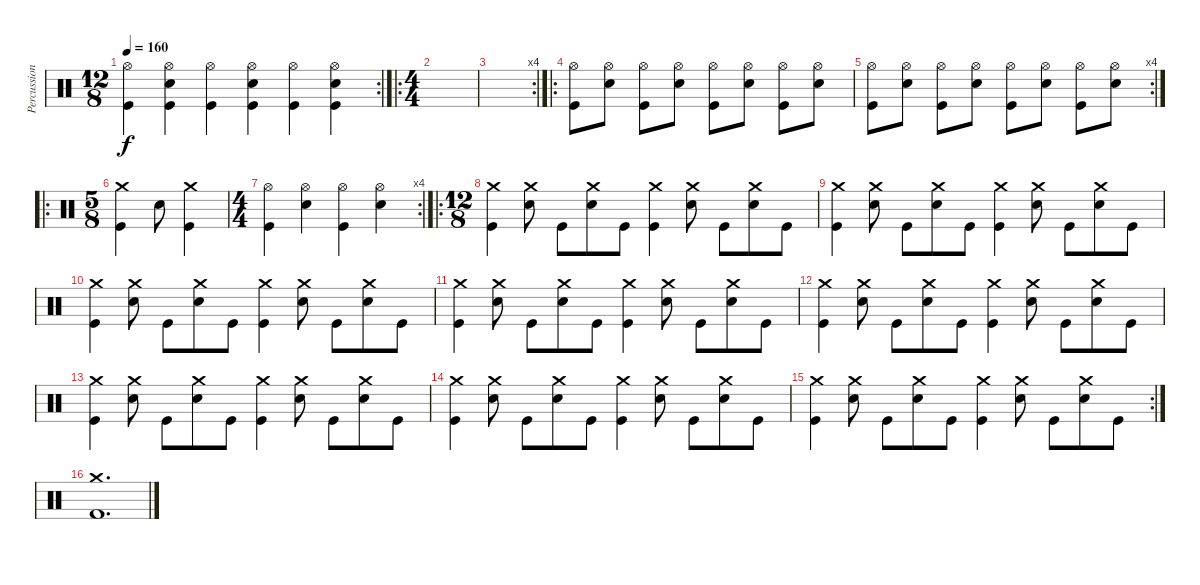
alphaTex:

\track ("Percussion" "Percussion") {instrument percussion}
\staff {score}
\articulation defaults
\rc 2
\ts (12 8)
\tempo 160
\clef neutral
\ks c
("Hi-Hat (open)" "Kick (hit)").4{dy f} ("Hi-Hat (open)" "Snare (hit) 2" "Kick (hit)").4 ("Hi-Hat (open)" "Kick (hit)").4 ("Hi-Hat (open)" "Snare (hit) 2" "Kick (hit)").4 ("Hi-Hat (open)" "Kick (hit)").4 ("Hi-Hat (open)" "Snare (hit) 2" "Kick (hit)").4 |
\ro
\ts (4 4)
|
\rc 4
|
\ro
("Hi-Hat (open)" "Kick (hit)").8 ("Hi-Hat (open)" "Snare (hit) 2").8 ("Hi-Hat (open)" "Kick (hit)").8 ("Hi-Hat (open)" "Snare (hit) 2").8 ("Hi-Hat (open)" "Kick (hit)").8 ("Hi-Hat (open)" "Snare (hit) 2").8 ("Hi-Hat (open)" "Kick (hit)").8 ("Hi-Hat (open)" "Snare (hit) 2").8 |
\rc 4
("Hi-Hat (open)" "Kick (hit)").8 ("Hi-Hat (open)" "Snare (hit) 2").8 ("Hi-Hat (open)" "Kick (hit)").8 ("Hi-Hat (open)" "Snare (hit) 2").8 ("Hi-Hat (open)" "Kick (hit)").8 ("Hi-Hat (open)" "Snare (hit) 2").8 ("Hi-Hat (open)" "Kick (hit)").8 ("Hi-Hat (open)" "Snare (hit) 2").8 |
\ro
\ts (5 8)
("Crash medium (hit)" "Kick (hit)").4 "Snare (hit) 2".8 ("Crash medium (hit)" "Kick (hit)").4 |
\rc 4
\ts (4 4)
("Hi-Hat (open)" "Kick (hit)").4 ("Hi-Hat (open)" "Snare (hit) 2").4 ("Hi-Hat (open)" "Kick (hit)").4 ("Hi-Hat (open)" "Snare (hit) 2").4 |
\ro
\ts (12 8)
("Crash medium (hit)" "Kick (hit)").4 ("Crash medium (hit)" "Snare (hit) 2").8 "Kick (hit)".8 ("Crash medium (hit)" "Snare (hit) 2").8 "Kick (hit)".8 ("Crash medium (hit)" "Kick (hit)").4 ("Crash medium (hit)" "Snare (hit) 2").8 "Kick (hit)".8 ("Crash medium (hit)" "Snare (hit) 2").8 "Kick (hit)".8 |
("Crash medium (hit)" "Kick (hit)").4 ("Crash medium (hit)" "Snare (hit) 2").8 "Kick (hit)".8 ("Crash medium (hit)" "Snare (hit) 2").8 "Kick (hit)".8 ("Crash medium (hit)" "Kick (hit)").4 ("Crash medium (hit)" "Snare (hit) 2").8 "Kick (hit)".8 ("Crash medium (hit)" "Snare (hit) 2").8 "Kick (hit)".8 |
("Crash medium (hit)" "Kick (hit)").4 ("Crash medium (hit)" "Snare (hit) 2").8 "Kick (hit)".8 ("Crash medium (hit)" "Snare (hit) 2").8 "Kick (hit)".8 ("Crash medium (hit)" "Kick (hit)").4 ("Crash medium (hit)" "Snare (hit) 2").8 "Kick (hit)".8 ("Crash medium (hit)" "Snare (hit) 2").8 "Kick (hit)".8 |
("Crash medium (hit)" "Kick (hit)").4 ("Crash medium (hit)" "Snare (hit) 2").8 "Kick (hit)".8 ("Crash medium (hit)" "Snare (hit) 2").8 "Kick (hit)".8 ("Crash medium (hit)" "Kick (hit)").4 ("Crash medium (hit)" "Snare (hit) 2").8 "Kick (hit)".8 ("Crash medium (hit)" "Snare (hit) 2").8 "Kick (hit)".8 |
("Crash medium (hit)" "Kick (hit)").4 ("Crash medium (hit)" "Snare (hit) 2").8 "Kick (hit)".8 ("Crash medium (hit)" "Snare (hit) 2").8 "Kick (hit)".8 ("Crash medium (hit)" "Kick (hit)").4 ("Crash medium (hit)" "Snare (hit) 2").8 "Kick (hit)".8 ("Crash medium (hit)" "Snare (hit) 2").8 "Kick (hit)".8 |
("Crash medium (hit)" "Kick (hit)").4 ("Crash medium (hit)" "Snare (hit) 2").8 "Kick (hit)".8 ("Crash medium (hit)" "Snare (hit) 2").8 "Kick (hit)".8 ("Crash medium (hit)" "Kick (hit)").4 ("Crash medium (hit)" "Snare (hit) 2").8 "Kick (hit)".8 ("Crash medium (hit)" "Snare (hit) 2").8 "Kick (hit)".8 |
("Crash medium (hit)" "Kick (hit)").4 ("Crash medium (hit)" "Snare (hit) 2").8 "Kick (hit)".8 ("Crash medium (hit)" "Snare (hit) 2").8 "Kick (hit)".8 ("Crash medium (hit)" "Kick (hit)").4 ("Crash medium (hit)" "Snare (hit) 2").8 "Kick (hit)".8 ("Crash medium (hit)" "Snare (hit) 2").8 "Kick (hit)".8 |
\rc 2
("Crash medium (hit)" "Kick (hit)").4 ("Crash medium (hit)" "Snare (hit) 2").8 "Kick (hit)".8 ("Crash medium (hit)" "Snare (hit) 2").8 "Kick (hit)".8 ("Crash medium (hit)" "Kick (hit)").4 ("Crash medium (hit)" "Snare (hit) 2").8 "Kick (hit)".8 ("Crash medium (hit)" "Snare (hit) 2").8 "Kick (hit)".8 |
("Crash medium (hit)" "Kick (hit) 2").1{d}
